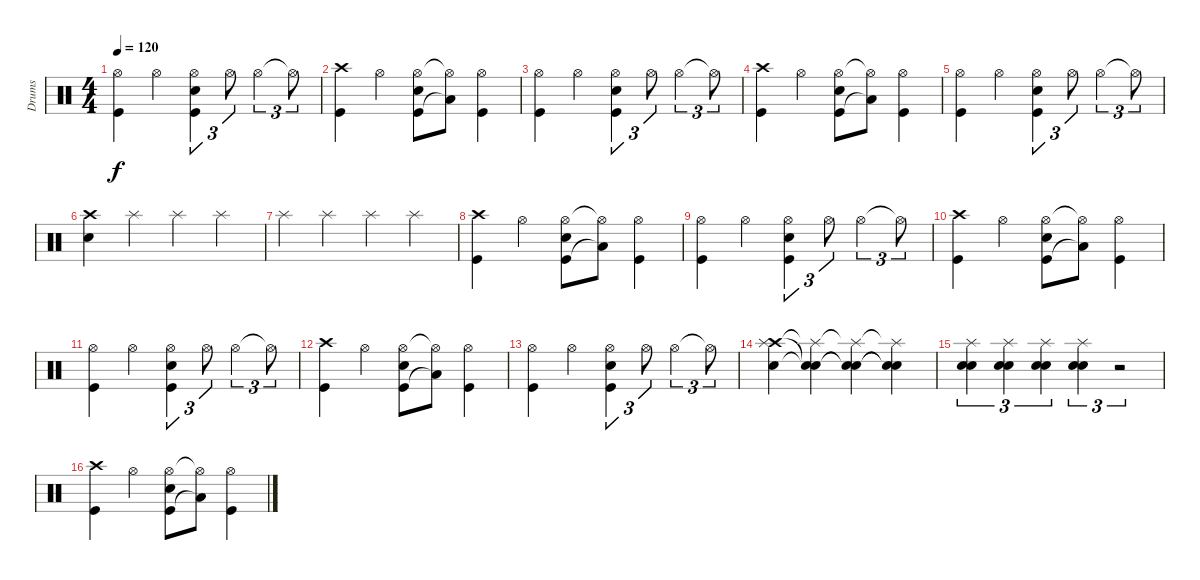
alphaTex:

\track ("Drums" "Drums") {instrument percussion}
\staff {score}
\articulation defaults
\ts (4 4)
\tempo 120
\clef neutral
\ks c
("Hi-Hat (open)" "Kick (hit)").4{dy f} "Hi-Hat (open)".4 ("Hi-Hat (open)" "Kick (hit)" "Electric Snare (hit)").4{tu (3 2)} "Hi-Hat (open)".8{tu (3 2)} "Hi-Hat (open)".4{tu (3 2)} "Hi-Hat (open)"{t}.8{tu (3 2)} |
("Crash high (hit)" "Kick (hit)").4 "Hi-Hat (open)".4 ("Hi-Hat (open)" "Kick (hit)" "Electric Snare (hit)").8 ("Hi-Hat (open)"{t} "Low Tom (hit)"{t}).8 ("Hi-Hat (open)" "Kick (hit)").4 |
("Hi-Hat (open)" "Kick (hit)").4 "Hi-Hat (open)".4 ("Hi-Hat (open)" "Kick (hit)" "Electric Snare (hit)").4{tu (3 2)} "Hi-Hat (open)".8{tu (3 2)} "Hi-Hat (open)".4{tu (3 2)} "Hi-Hat (open)"{t}.8{tu (3 2)} |
("Crash high (hit)" "Kick (hit)").4 "Hi-Hat (open)".4 ("Hi-Hat (open)" "Kick (hit)" "Electric Snare (hit)").8 ("Hi-Hat (open)"{t} "Low Tom (hit)"{t}).8 ("Hi-Hat (open)" "Kick (hit)").4 |
("Hi-Hat (open)" "Kick (hit)").4 "Hi-Hat (open)".4 ("Hi-Hat (open)" "Kick (hit)" "Electric Snare (hit)").4{tu (3 2)} "Hi-Hat (open)".8{tu (3 2)} "Hi-Hat (open)".4{tu (3 2)} "Hi-Hat (open)"{t}.8{tu (3 2)} |
("Crash high (hit)" "Snare (hit) 2").4 "Splash (hit)".4 "Splash (hit)".4 "Splash (hit)".4 |
"Splash (hit)".4 "Splash (hit)".4 "Splash (hit)".4 "Splash (hit)".4 |
("Crash high (hit)" "Kick (hit)").4 "Hi-Hat (open)".4 ("Hi-Hat (open)" "Kick (hit)" "Electric Snare (hit)").8 ("Hi-Hat (open)"{t} "Low Tom (hit)"{t}).8 ("Hi-Hat (open)" "Kick (hit)").4 |
("Hi-Hat (open)" "Kick (hit)").4 "Hi-Hat (open)".4 ("Hi-Hat (open)" "Kick (hit)" "Electric Snare (hit)").4{tu (3 2)} "Hi-Hat (open)".8{tu (3 2)} "Hi-Hat (open)".4{tu (3 2)} "Hi-Hat (open)"{t}.8{tu (3 2)} |
("Crash high (hit)" "Kick (hit)").4 "Hi-Hat (open)".4 ("Hi-Hat (open)" "Kick (hit)" "Electric Snare (hit)").8 ("Hi-Hat (open)"{t} "Low Tom (hit)"{t}).8 ("Hi-Hat (open)" "Kick (hit)").4 |
("Hi-Hat (open)" "Kick (hit)").4 "Hi-Hat (open)".4 ("Hi-Hat (open)" "Kick (hit)" "Electric Snare (hit)").4{tu (3 2)} "Hi-Hat (open)".8{tu (3 2)} "Hi-Hat (open)".4{tu (3 2)} "Hi-Hat (open)"{t}.8{tu (3 2)} |
("Crash high (hit)" "Kick (hit)").4 "Hi-Hat (open)".4 ("Hi-Hat (open)" "Kick (hit)" "Electric Snare (hit)").8 ("Hi-Hat (open)"{t} "Low Tom (hit)"{t}).8 ("Hi-Hat (open)" "Kick (hit)").4 |
("Hi-Hat (open)" "Kick (hit)").4 "Hi-Hat (open)".4 ("Hi-Hat (open)" "Kick (hit)" "Electric Snare (hit)").4{tu (3 2)} "Hi-Hat (open)".8{tu (3 2)} "Hi-Hat (open)".4{tu (3 2)} "Hi-Hat (open)"{t}.8{tu (3 2)} |
("Crash high (hit)" "Snare (hit) 2" "Splash (hit)").4 ("Snare (hit)"{t} "Snare (hit)"{t} "Splash (hit)"{t}).4 ("Snare (hit)"{t} "Snare (hit)"{t} "Splash (hit)"{t}).4 ("Snare (hit)"{t} "Snare (hit)"{t} "Splash (hit)"{t}).4 |
("Electric Snare (hit)" "Snare (hit) 2" "Splash (hit)").4{tu (3 2)} ("Electric Snare (hit)" "Snare (hit) 2" "Splash (hit)").4{tu (3 2)} ("Electric Snare (hit)" "Snare (hit) 2" "Splash (hit)").4{tu (3 2)} ("Electric Snare (hit)" "Snare (hit) 2" "Splash (hit)").4{tu (3 2)} r.2{tu (3 2)} |
("Crash high (hit)" "Kick (hit)").4 "Hi-Hat (open)".4 ("Hi-Hat (open)" "Kick (hit)" "Electric Snare (hit)").8 ("Hi-Hat (open)"{t} "Low Tom (hit)"{t}).8 ("Hi-Hat (open)" "Kick (hit)").4
